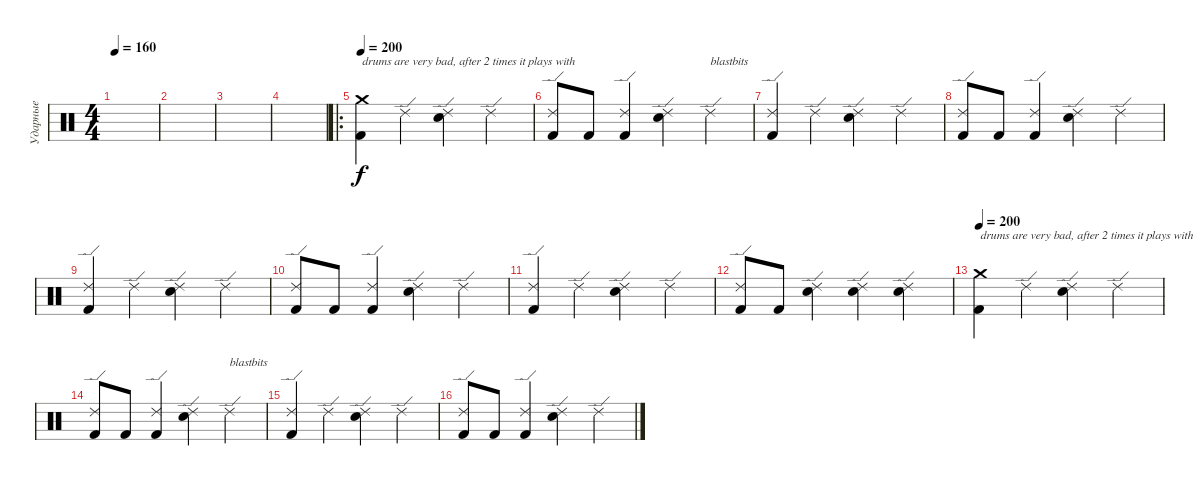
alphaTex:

\track ("Ударные" "Ударные") {instrument percussion}
\staff {score}
\articulation defaults
\ts (4 4)
\tempo 160
\clef neutral
\ks c
|
|
|
|
\ro
\tempo 200
("Crash medium (hit)" "Kick (hit) 2").4{txt "drums are very bad, after 2 times it plays with "} "Ride (edge) 2".4 ("Ride (edge) 2" "Snare (hit) 2").4 "Ride (edge) 2".4 |
("Ride (edge) 2" "Kick (hit) 2").8 "Kick (hit) 2".8 ("Ride (edge) 2" "Kick (hit) 2").4 ("Ride (edge) 2" "Snare (hit) 2").4 "Ride (edge) 2".4{txt "blastbits"} |
("Ride (edge) 2" "Kick (hit) 2").4 "Ride (edge) 2".4 ("Ride (edge) 2" "Snare (hit) 2").4 "Ride (edge) 2".4 |
("Ride (edge) 2" "Kick (hit) 2").8 "Kick (hit) 2".8 ("Ride (edge) 2" "Kick (hit) 2").4 ("Ride (edge) 2" "Snare (hit) 2").4 "Ride (edge) 2".4 |
("Ride (edge) 2" "Kick (hit) 2").4 "Ride (edge) 2".4 ("Ride (edge) 2" "Snare (hit) 2").4 "Ride (edge) 2".4 |
("Ride (edge) 2" "Kick (hit) 2").8 "Kick (hit) 2".8 ("Ride (edge) 2" "Kick (hit) 2").4 ("Ride (edge) 2" "Snare (hit) 2").4 "Ride (edge) 2".4 |
("Ride (edge) 2" "Kick (hit) 2").4 "Ride (edge) 2".4 ("Ride (edge) 2" "Snare (hit) 2").4 "Ride (edge) 2".4 |
("Ride (edge) 2" "Kick (hit) 2").8 "Kick (hit) 2".8 ("Ride (edge) 2" "Snare (hit) 2").4 ("Ride (edge) 2" "Snare (hit) 2").4 ("Ride (edge) 2" "Snare (hit) 2").4 |
\tempo 200
("Crash medium (hit)" "Kick (hit) 2").4{txt "drums are very bad, after 2 times it plays with "} "Ride (edge) 2".4 ("Ride (edge) 2" "Snare (hit) 2").4 "Ride (edge) 2".4 |
("Ride (edge) 2" "Kick (hit) 2").8 "Kick (hit) 2".8 ("Ride (edge) 2" "Kick (hit) 2").4 ("Ride (edge) 2" "Snare (hit) 2").4 "Ride (edge) 2".4{txt "blastbits"} |
("Ride (edge) 2" "Kick (hit) 2").4 "Ride (edge) 2".4 ("Ride (edge) 2" "Snare (hit) 2").4 "Ride (edge) 2".4 |
("Ride (edge) 2" "Kick (hit) 2").8 "Kick (hit) 2".8 ("Ride (edge) 2" "Kick (hit) 2").4 ("Ride (edge) 2" "Snare (hit) 2").4 "Ride (edge) 2".4
